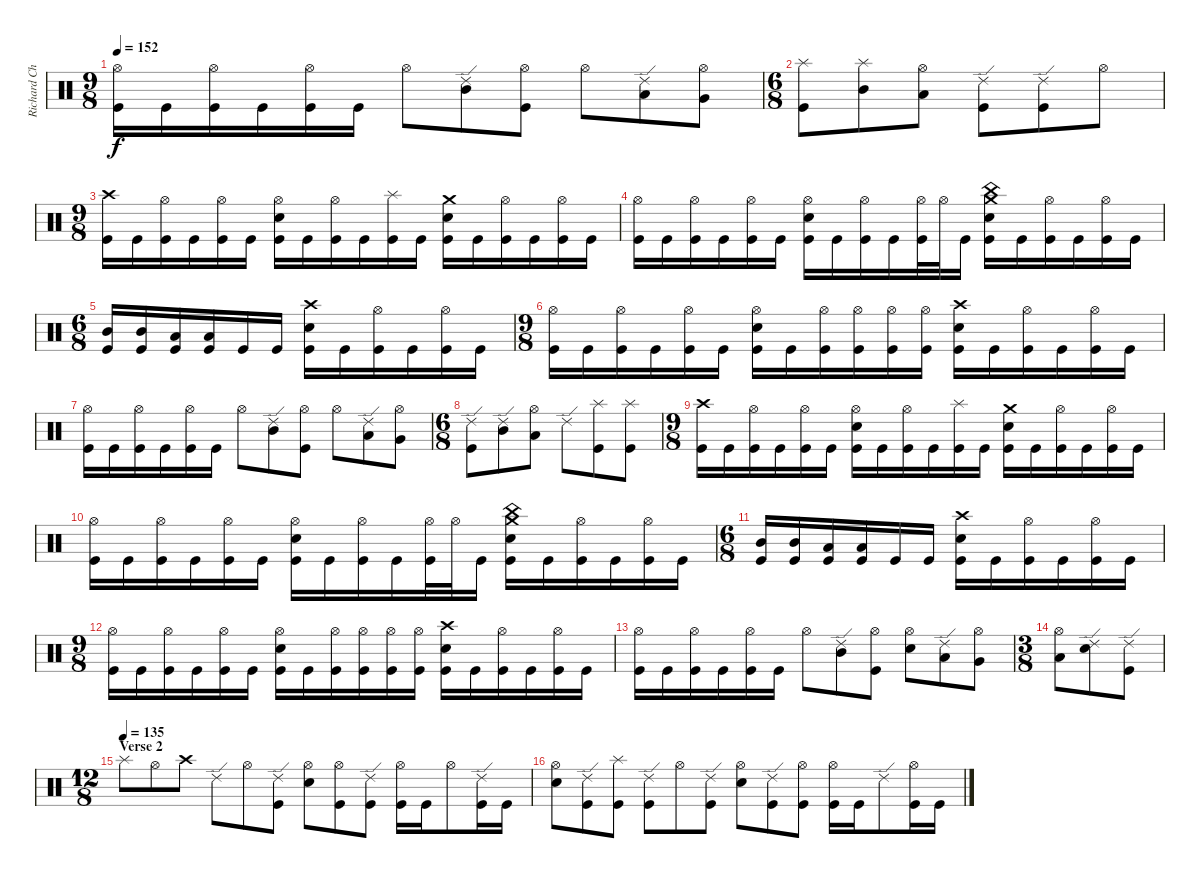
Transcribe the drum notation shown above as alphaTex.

\track ("Richard Christy " "Richard Ch") {instrument percussion}
\staff {score}
\articulation defaults
\ts (9 8)
\tempo 152
\clef neutral
\ks c
("Hi-Hat (open)" "Kick (hit)").16{dy f} "Kick (hit)".16 ("Hi-Hat (open)" "Kick (hit)").16 "Kick (hit)".16 ("Hi-Hat (open)" "Kick (hit)").16 "Kick (hit)".16 "Hi-Hat (open)".8 ("Ride (edge) 2" "Mid Tom (hit)").8 ("Hi-Hat (open)" "Kick (hit)").8 "Hi-Hat (open)".8 ("Ride (edge) 2" "Low Tom (hit)").8 ("Hi-Hat (open)" "Very Low Tom (hit)").8 |
\ts (6 8)
("Splash (hit)" "Kick (hit)").8 ("Splash (hit)" "Mid Tom (hit)").8 ("Hi-Hat (open)" "Low Tom (hit)").8 ("Ride (edge) 2" "Kick (hit)").8 ("Ride (edge) 2" "Kick (hit)").8 "Hi-Hat (open)".8 |
\ts (9 8)
("Crash high (hit)" "Kick (hit)").16 "Kick (hit)".16 ("Hi-Hat (open)" "Kick (hit)").16 "Kick (hit)".16 ("Hi-Hat (open)" "Kick (hit)").16 "Kick (hit)".16 ("Hi-Hat (open)" "Electric Snare (hit)" "Kick (hit)").16 "Kick (hit)".16 ("Hi-Hat (open)" "Kick (hit)").16 "Kick (hit)".16 ("Splash (hit)" "Kick (hit)").16 "Kick (hit)".16 ("Crash medium (hit)" "Electric Snare (hit)" "Kick (hit)").16 "Kick (hit)".16 ("Hi-Hat (open)" "Kick (hit)").16 "Kick (hit)".16 ("Hi-Hat (open)" "Kick (hit)").16 "Kick (hit)".16 |
("Hi-Hat (open)" "Kick (hit)").16 "Kick (hit)".16 ("Hi-Hat (open)" "Kick (hit)").16 "Kick (hit)".16 ("Hi-Hat (open)" "Kick (hit)").16 "Kick (hit)".16 ("Hi-Hat (open)" "Electric Snare (hit)" "Kick (hit)").16 "Kick (hit)".16 ("Hi-Hat (open)" "Kick (hit)").16 "Kick (hit)".16 ("Hi-Hat (open)" "Kick (hit)").32 "Hi-Hat (open)".32 "Kick (hit)".16 ("Crash medium (hit)" "China (hit)" "Electric Snare (hit)" "Kick (hit)").16 "Kick (hit)".16 ("Hi-Hat (open)" "Kick (hit)").16 "Kick (hit)".16 ("Hi-Hat (open)" "Kick (hit)").16 "Kick (hit)".16 |
\ts (6 8)
("Mid Tom (hit)" "Kick (hit)").16 ("Mid Tom (hit)" "Kick (hit)").16 ("Low Tom (hit)" "Kick (hit)").16 ("Low Tom (hit)" "Kick (hit)").16 "Kick (hit)".16 "Kick (hit)".16 ("Crash high (hit)" "Electric Snare (hit)" "Kick (hit)").16 "Kick (hit)".16 ("Hi-Hat (open)" "Kick (hit)").16 "Kick (hit)".16 ("Hi-Hat (open)" "Kick (hit)").16 "Kick (hit)".16 |
\ts (9 8)
("Hi-Hat (open)" "Kick (hit)").16 "Kick (hit)".16 ("Hi-Hat (open)" "Kick (hit)").16 "Kick (hit)".16 ("Hi-Hat (open)" "Kick (hit)").16 "Kick (hit)".16 ("Hi-Hat (open)" "Electric Snare (hit)" "Kick (hit)").16 "Kick (hit)".16 ("Hi-Hat (open)" "Kick (hit)").16 ("Hi-Hat (open)" "Kick (hit)").16 ("Hi-Hat (open)" "Kick (hit)").16 ("Hi-Hat (open)" "Kick (hit)").16 ("Crash high (hit)" "Electric Snare (hit)" "Kick (hit)").16 "Kick (hit)".16 ("Hi-Hat (open)" "Kick (hit)").16 "Kick (hit)".16 ("Hi-Hat (open)" "Kick (hit)").16 "Kick (hit)".16 |
("Hi-Hat (open)" "Kick (hit)").16 "Kick (hit)".16 ("Hi-Hat (open)" "Kick (hit)").16 "Kick (hit)".16 ("Hi-Hat (open)" "Kick (hit)").16 "Kick (hit)".16 "Hi-Hat (open)".8 ("Ride (edge) 2" "Mid Tom (hit)").8 ("Hi-Hat (open)" "Kick (hit)").8 "Hi-Hat (open)".8 ("Ride (edge) 2" "Low Tom (hit)").8 ("Hi-Hat (open)" "Very Low Tom (hit)").8 |
\ts (6 8)
("Ride (edge) 2" "Kick (hit)").8 ("Ride (edge) 2" "Mid Tom (hit)").8 ("Hi-Hat (open)" "Low Tom (hit)").8 "Ride (edge) 2".8 ("Splash (hit)" "Kick (hit)").8 ("Splash (hit)" "Kick (hit)").8 |
\ts (9 8)
("Crash high (hit)" "Kick (hit)").16 "Kick (hit)".16 ("Hi-Hat (open)" "Kick (hit)").16 "Kick (hit)".16 ("Hi-Hat (open)" "Kick (hit)").16 "Kick (hit)".16 ("Hi-Hat (open)" "Electric Snare (hit)" "Kick (hit)").16 "Kick (hit)".16 ("Hi-Hat (open)" "Kick (hit)").16 "Kick (hit)".16 ("Splash (hit)" "Kick (hit)").16 "Kick (hit)".16 ("Crash medium (hit)" "Electric Snare (hit)" "Kick (hit)").16 "Kick (hit)".16 ("Hi-Hat (open)" "Kick (hit)").16 "Kick (hit)".16 ("Hi-Hat (open)" "Kick (hit)").16 "Kick (hit)".16 |
("Hi-Hat (open)" "Kick (hit)").16 "Kick (hit)".16 ("Hi-Hat (open)" "Kick (hit)").16 "Kick (hit)".16 ("Hi-Hat (open)" "Kick (hit)").16 "Kick (hit)".16 ("Hi-Hat (open)" "Electric Snare (hit)" "Kick (hit)").16 "Kick (hit)".16 ("Hi-Hat (open)" "Kick (hit)").16 "Kick (hit)".16 ("Hi-Hat (open)" "Kick (hit)").32 "Hi-Hat (open)".32 "Kick (hit)".16 ("Crash medium (hit)" "China (hit)" "Electric Snare (hit)" "Kick (hit)").16 "Kick (hit)".16 ("Hi-Hat (open)" "Kick (hit)").16 "Kick (hit)".16 ("Hi-Hat (open)" "Kick (hit)").16 "Kick (hit)".16 |
\ts (6 8)
("Mid Tom (hit)" "Kick (hit)").16 ("Mid Tom (hit)" "Kick (hit)").16 ("Low Tom (hit)" "Kick (hit)").16 ("Low Tom (hit)" "Kick (hit)").16 "Kick (hit)".16 "Kick (hit)".16 ("Crash high (hit)" "Electric Snare (hit)" "Kick (hit)").16 "Kick (hit)".16 ("Hi-Hat (open)" "Kick (hit)").16 "Kick (hit)".16 ("Hi-Hat (open)" "Kick (hit)").16 "Kick (hit)".16 |
\ts (9 8)
("Hi-Hat (open)" "Kick (hit)").16 "Kick (hit)".16 ("Hi-Hat (open)" "Kick (hit)").16 "Kick (hit)".16 ("Hi-Hat (open)" "Kick (hit)").16 "Kick (hit)".16 ("Hi-Hat (open)" "Electric Snare (hit)" "Kick (hit)").16 "Kick (hit)".16 ("Hi-Hat (open)" "Kick (hit)").16 ("Hi-Hat (open)" "Kick (hit)").16 ("Hi-Hat (open)" "Kick (hit)").16 ("Hi-Hat (open)" "Kick (hit)").16 ("Crash high (hit)" "Electric Snare (hit)" "Kick (hit)").16 "Kick (hit)".16 ("Hi-Hat (open)" "Kick (hit)").16 "Kick (hit)".16 ("Hi-Hat (open)" "Kick (hit)").16 "Kick (hit)".16 |
("Hi-Hat (open)" "Kick (hit)").16 "Kick (hit)".16 ("Hi-Hat (open)" "Kick (hit)").16 "Kick (hit)".16 ("Hi-Hat (open)" "Kick (hit)").16 "Kick (hit)".16 "Hi-Hat (open)".8 ("Ride (edge) 2" "Mid Tom (hit)").8 ("Hi-Hat (open)" "Kick (hit)").8 ("Hi-Hat (open)" "Electric Snare (hit)").8 ("Ride (edge) 2" "Low Tom (hit)").8 ("Hi-Hat (open)" "Very Low Tom (hit)").8 |
\ts (3 8)
("Hi-Hat (open)" "Low Tom (hit)").8 ("Ride (edge) 2" "Electric Snare (hit)").8 ("Ride (edge) 2" "Kick (hit)").8 |
\ts (12 8)
\section ("" "Verse 2")
\tempo (135)
"Splash (hit)".8 "Hi-Hat (open)".8 "Crash high (hit)".8 "Ride (edge) 2".8 "Hi-Hat (open)".8 ("Ride (edge) 2" "Kick (hit)").8 ("Hi-Hat (open)" "Electric Snare (hit)").8 ("Hi-Hat (open)" "Kick (hit)").8 ("Ride (edge) 2" "Kick (hit)").8 ("Hi-Hat (open)" "Kick (hit)").16 "Kick (hit)".16 "Hi-Hat (open)".8 ("Ride (edge) 2" "Kick (hit)").16 "Kick (hit)".16 |
("Hi-Hat (open)" "Electric Snare (hit)").8 ("Ride (edge) 2" "Kick (hit)").8 ("Splash (hit)" "Kick (hit)").8 ("Ride (edge) 2" "Kick (hit)").8 "Hi-Hat (open)".8 ("Ride (edge) 2" "Kick (hit)").8 ("Hi-Hat (open)" "Electric Snare (hit)").8 ("Ride (edge) 2" "Kick (hit)").8 ("Hi-Hat (open)" "Kick (hit)").8 ("Hi-Hat (open)" "Kick (hit)").16 "Kick (hit)".16 "Ride (edge) 2".8 ("Hi-Hat (open)" "Kick (hit)").16 "Kick (hit)".16
